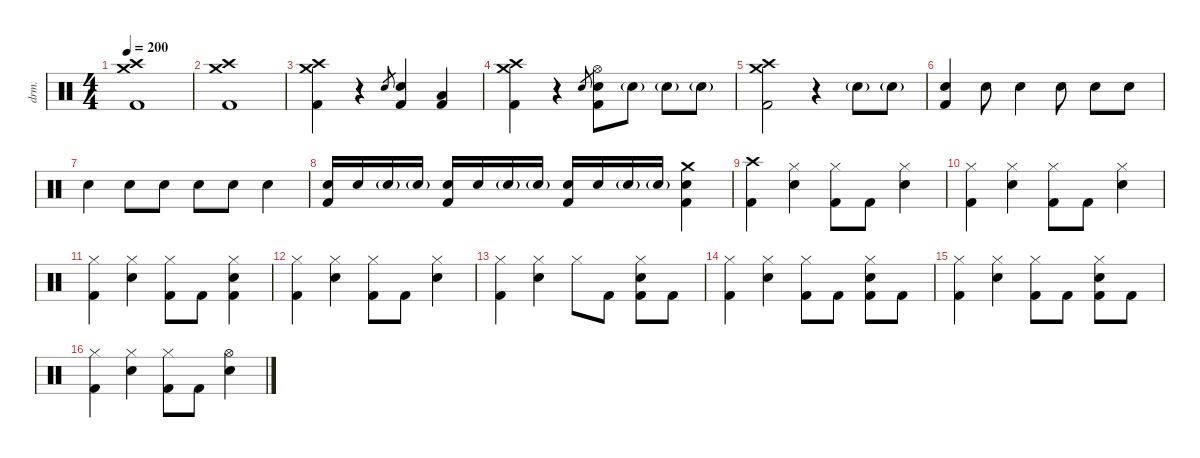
\defaultSystemsLayout 4
\hideDynamics
\bracketExtendMode nobrackets
\track ("Drums" "drm.") {instrument percussion}
\staff {score}
\articulation defaults
\ts (4 4)
\tempo 200
\clef neutral
\ks c
("Crash high (hit)" "Crash medium (hit)" "Kick (hit) 2").1{dy mf} |
("Crash high (hit)" "Crash medium (hit)" "Kick (hit) 2").1 |
("Crash high (hit)" "Crash medium (hit)" "Kick (hit) 2").4 r.4 "Snare (hit) 2".8{gr} ("Snare (hit) 2" "Kick (hit) 2").4{dy f} ("Low Tom (hit)" "Kick (hit) 2").4 |
("Crash high (hit)" "Crash medium (hit)" "Kick (hit) 2").4{dy mf} r.4 "Snare (hit) 2".8{gr} ("Hi-Hat (open)" "Snare (hit) 2" "Kick (hit) 2").8{dy f} "Snare (hit) 2"{g}.8{dy mf} "Snare (hit) 2"{g}.8 "Snare (hit) 2"{g}.8 |
("Crash high (hit)" "Crash medium (hit)" "Kick (hit) 2").2{dy f} r.4 "Snare (hit) 2"{g}.8{dy mf} "Snare (hit) 2"{g}.8 |
("Snare (hit) 2" "Kick (hit) 2").4{dy ff} "Snare (hit) 2".8 "Snare (hit) 2".4 "Snare (hit) 2".8 "Snare (hit) 2".8 "Snare (hit) 2".8 |
"Snare (hit) 2".4 "Snare (hit) 2".8 "Snare (hit) 2".8 "Snare (hit) 2".8 "Snare (hit) 2".8 "Snare (hit) 2".4 |
("Snare (hit) 2" "Kick (hit) 2").16 "Snare (hit) 2".16 "Snare (hit) 2"{g}.16{dy f} "Snare (hit) 2"{g}.16 ("Snare (hit) 2" "Kick (hit) 2").16{dy ff} "Snare (hit) 2".16 "Snare (hit) 2"{g}.16{dy f} "Snare (hit) 2"{g}.16 ("Snare (hit) 2" "Kick (hit) 2").16 "Snare (hit) 2".16 "Snare (hit) 2"{g}.16{dy ff} "Snare (hit) 2"{g}.16 ("Crash medium (hit)" "Snare (hit) 2" "Kick (hit) 2").4{dy mf} |
("Crash high (hit)" "Kick (hit) 2").4 ("Hi-Hat (closed)" "Snare (hit) 2").4{dy f} ("Hi-Hat (closed)" "Kick (hit) 2").8 "Kick (hit) 2".8{dy ff} ("Hi-Hat (closed)" "Snare (hit) 2").4{dy f} |
("Hi-Hat (closed)" "Kick (hit) 2").4 ("Hi-Hat (closed)" "Snare (hit) 2").4 ("Hi-Hat (closed)" "Kick (hit) 2").8 "Kick (hit) 2".8{dy ff} ("Hi-Hat (closed)" "Snare (hit) 2").4{dy f} |
("Hi-Hat (closed)" "Kick (hit) 2").4 ("Hi-Hat (closed)" "Snare (hit) 2").4 ("Hi-Hat (closed)" "Kick (hit) 2").8 "Kick (hit) 2".8{dy ff} ("Hi-Hat (closed)" "Snare (hit) 2" "Kick (hit) 2").4{dy f} |
("Hi-Hat (closed)" "Kick (hit) 2").4 ("Hi-Hat (closed)" "Snare (hit) 2").4 ("Hi-Hat (closed)" "Kick (hit) 2").8 "Kick (hit) 2".8{dy ff} ("Hi-Hat (closed)" "Snare (hit) 2").4{dy f} |
("Hi-Hat (closed)" "Kick (hit) 2").4 ("Hi-Hat (closed)" "Snare (hit) 2").4 "Hi-Hat (closed)".8 "Kick (hit) 2".8{dy ff} ("Hi-Hat (closed)" "Snare (hit) 2" "Kick (hit) 2").8{dy f} "Kick (hit) 2".8{dy ff} |
("Hi-Hat (closed)" "Kick (hit) 2").4{dy f} ("Hi-Hat (closed)" "Snare (hit) 2").4 ("Hi-Hat (closed)" "Kick (hit) 2").8 "Kick (hit) 2".8{dy ff} ("Hi-Hat (closed)" "Snare (hit) 2" "Kick (hit) 2").8{dy f} "Kick (hit) 2".8{dy ff} |
("Hi-Hat (closed)" "Kick (hit) 2").4{dy f} ("Hi-Hat (closed)" "Snare (hit) 2").4 ("Hi-Hat (closed)" "Kick (hit) 2").8 "Kick (hit) 2".8{dy ff} ("Hi-Hat (closed)" "Snare (hit) 2" "Kick (hit) 2").8{dy f} "Kick (hit) 2".8{dy ff} |
("Hi-Hat (closed)" "Kick (hit) 2").4{dy f} ("Hi-Hat (closed)" "Snare (hit) 2").4 ("Hi-Hat (closed)" "Kick (hit) 2").8 "Kick (hit) 2".8{dy ff} ("Hi-Hat (open)" "Snare (hit) 2").4{dy f}
